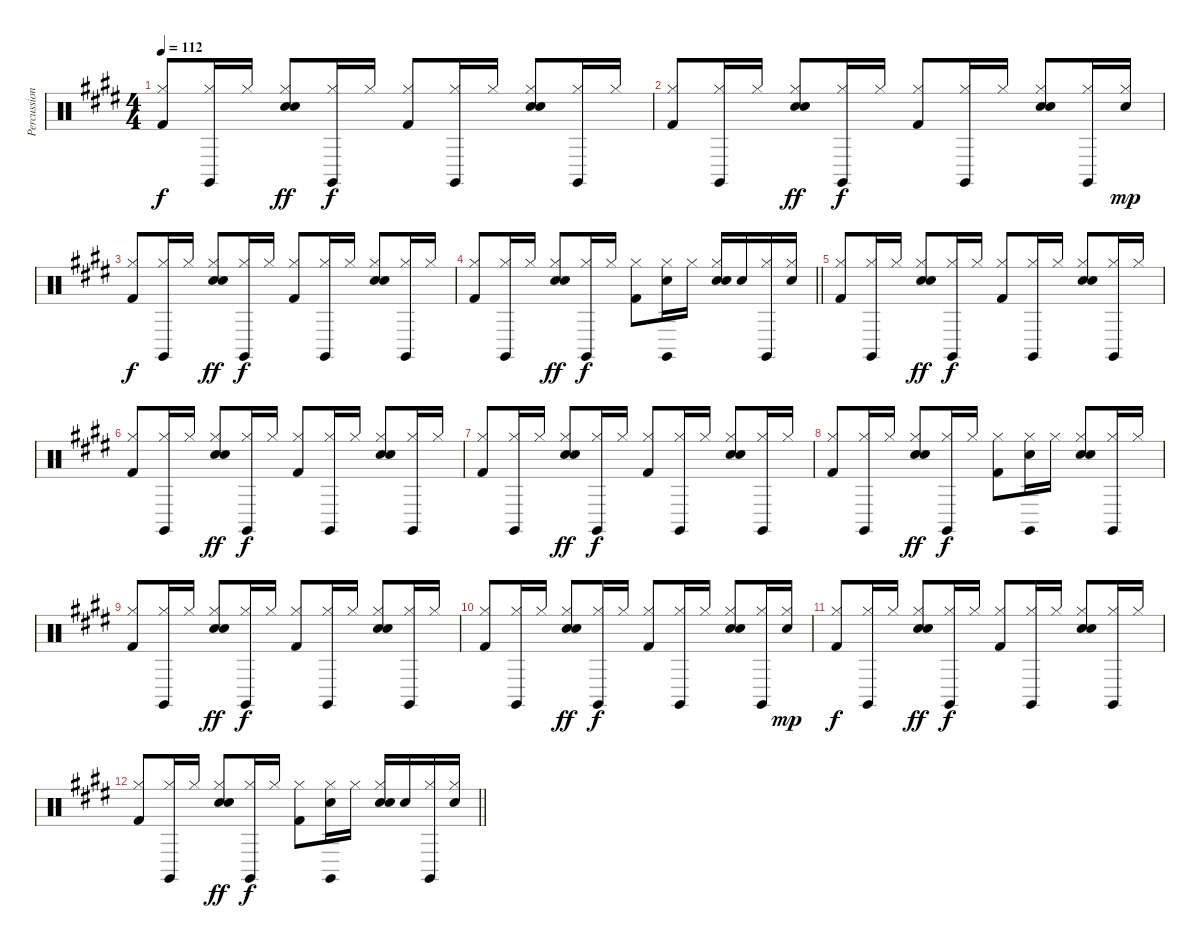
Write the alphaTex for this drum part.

\track ("Percussion" "Percussion") {instrument percussion}
\staff {score}
\articulation defaults
\ts (4 4)
\tempo 112
\clef neutral
\ks e
("Hi-Hat (closed)" "Kick (hit) 2").8{dy f} ("Claves (hit)" "Hi-Hat (closed)").16 "Hi-Hat (closed)".16 ("Hand Clap (hit)" "Hi-Hat (closed)" "Snare (hit) 2").8{dy ff} ("Claves (hit)" "Hi-Hat (closed)").16{dy f} "Hi-Hat (closed)".16 ("Hi-Hat (closed)" "Kick (hit) 2").8 ("Claves (hit)" "Hi-Hat (closed)").16 "Hi-Hat (closed)".16 ("Hand Clap (hit)" "Hi-Hat (closed)" "Snare (hit) 2").8 ("Claves (hit)" "Hi-Hat (closed)").16 "Hi-Hat (closed)".16 |
("Hi-Hat (closed)" "Kick (hit) 2").8 ("Claves (hit)" "Hi-Hat (closed)").16 "Hi-Hat (closed)".16 ("Hand Clap (hit)" "Hi-Hat (closed)" "Snare (hit) 2").8{dy ff} ("Claves (hit)" "Hi-Hat (closed)").16{dy f} "Hi-Hat (closed)".16 ("Hi-Hat (closed)" "Kick (hit) 2").8 ("Claves (hit)" "Hi-Hat (closed)").16 "Hi-Hat (closed)".16 ("Hand Clap (hit)" "Hi-Hat (closed)" "Snare (hit) 2").8 ("Claves (hit)" "Hi-Hat (closed)").16 ("Electric Snare (hit)" "Hi-Hat (closed)").16{dy mp} |
("Hi-Hat (closed)" "Kick (hit) 2").8{dy f} ("Claves (hit)" "Hi-Hat (closed)").16 "Hi-Hat (closed)".16 ("Hand Clap (hit)" "Hi-Hat (closed)" "Snare (hit) 2").8{dy ff} ("Claves (hit)" "Hi-Hat (closed)").16{dy f} "Hi-Hat (closed)".16 ("Hi-Hat (closed)" "Kick (hit) 2").8 ("Claves (hit)" "Hi-Hat (closed)").16 "Hi-Hat (closed)".16 ("Hand Clap (hit)" "Hi-Hat (closed)" "Snare (hit) 2").8 ("Claves (hit)" "Hi-Hat (closed)").16 "Hi-Hat (closed)".16 |
\barLineRight lightlight
("Hi-Hat (closed)" "Kick (hit) 2").8 ("Claves (hit)" "Hi-Hat (closed)").16 "Hi-Hat (closed)".16 ("Hand Clap (hit)" "Hi-Hat (closed)" "Snare (hit) 2").8{dy ff} ("Claves (hit)" "Hi-Hat (closed)").16{dy f} "Hi-Hat (closed)".16 ("Hi-Hat (closed)" "Kick (hit) 2").8 ("Claves (hit)" "Hi-Hat (closed)" "Snare (hit) 2").16 "Hi-Hat (closed)".16 ("Hand Clap (hit)" "Hi-Hat (closed)" "Snare (hit) 2").16 "Snare (hit) 2".16 ("Claves (hit)" "Hi-Hat (closed)").16 ("Hi-Hat (closed)" "Snare (hit) 2").16 |
("Hi-Hat (closed)" "Kick (hit) 2").8 ("Claves (hit)" "Hi-Hat (closed)").16 "Hi-Hat (closed)".16 ("Hand Clap (hit)" "Hi-Hat (closed)" "Snare (hit) 2").8{dy ff} ("Claves (hit)" "Hi-Hat (closed)").16{dy f} "Hi-Hat (closed)".16 ("Hi-Hat (closed)" "Kick (hit) 2").8 ("Claves (hit)" "Hi-Hat (closed)").16 "Hi-Hat (closed)".16 ("Hand Clap (hit)" "Hi-Hat (closed)" "Snare (hit) 2").8 ("Claves (hit)" "Hi-Hat (closed)").16 "Hi-Hat (closed)".16 |
("Hi-Hat (closed)" "Kick (hit) 2").8 ("Claves (hit)" "Hi-Hat (closed)").16 "Hi-Hat (closed)".16 ("Hand Clap (hit)" "Hi-Hat (closed)" "Snare (hit) 2").8{dy ff} ("Claves (hit)" "Hi-Hat (closed)").16{dy f} "Hi-Hat (closed)".16 ("Hi-Hat (closed)" "Kick (hit) 2").8 ("Claves (hit)" "Hi-Hat (closed)").16 "Hi-Hat (closed)".16 ("Hand Clap (hit)" "Hi-Hat (closed)" "Snare (hit) 2").8 ("Claves (hit)" "Hi-Hat (closed)").16 "Hi-Hat (closed)".16 |
("Hi-Hat (closed)" "Kick (hit) 2").8 ("Claves (hit)" "Hi-Hat (closed)").16 "Hi-Hat (closed)".16 ("Hand Clap (hit)" "Hi-Hat (closed)" "Snare (hit) 2").8{dy ff} ("Claves (hit)" "Hi-Hat (closed)").16{dy f} "Hi-Hat (closed)".16 ("Hi-Hat (closed)" "Kick (hit) 2").8 ("Claves (hit)" "Hi-Hat (closed)").16 "Hi-Hat (closed)".16 ("Hand Clap (hit)" "Hi-Hat (closed)" "Snare (hit) 2").8 ("Claves (hit)" "Hi-Hat (closed)").16 "Hi-Hat (closed)".16 |
("Hi-Hat (closed)" "Kick (hit) 2").8 ("Claves (hit)" "Hi-Hat (closed)").16 "Hi-Hat (closed)".16 ("Hand Clap (hit)" "Hi-Hat (closed)" "Snare (hit) 2").8{dy ff} ("Claves (hit)" "Hi-Hat (closed)").16{dy f} "Hi-Hat (closed)".16 ("Hi-Hat (closed)" "Kick (hit) 2").8 ("Claves (hit)" "Hand Clap (hit)" "Hi-Hat (closed)").16 "Hi-Hat (closed)".16 ("Hand Clap (hit)" "Hi-Hat (closed)" "Snare (hit) 2").8 ("Claves (hit)" "Hi-Hat (closed)").16 "Hi-Hat (closed)".16 |
("Hi-Hat (closed)" "Kick (hit) 2").8 ("Claves (hit)" "Hi-Hat (closed)").16 "Hi-Hat (closed)".16 ("Hand Clap (hit)" "Hi-Hat (closed)" "Snare (hit) 2").8{dy ff} ("Claves (hit)" "Hi-Hat (closed)").16{dy f} "Hi-Hat (closed)".16 ("Hi-Hat (closed)" "Kick (hit) 2").8 ("Claves (hit)" "Hi-Hat (closed)").16 "Hi-Hat (closed)".16 ("Hand Clap (hit)" "Hi-Hat (closed)" "Snare (hit) 2").8 ("Claves (hit)" "Hi-Hat (closed)").16 "Hi-Hat (closed)".16 |
("Hi-Hat (closed)" "Kick (hit) 2").8 ("Claves (hit)" "Hi-Hat (closed)").16 "Hi-Hat (closed)".16 ("Hand Clap (hit)" "Hi-Hat (closed)" "Snare (hit) 2").8{dy ff} ("Claves (hit)" "Hi-Hat (closed)").16{dy f} "Hi-Hat (closed)".16 ("Hi-Hat (closed)" "Kick (hit) 2").8 ("Claves (hit)" "Hi-Hat (closed)").16 "Hi-Hat (closed)".16 ("Hand Clap (hit)" "Hi-Hat (closed)" "Snare (hit) 2").8 ("Claves (hit)" "Hi-Hat (closed)").16 ("Electric Snare (hit)" "Hi-Hat (closed)").16{dy mp} |
("Hi-Hat (closed)" "Kick (hit) 2").8{dy f} ("Claves (hit)" "Hi-Hat (closed)").16 "Hi-Hat (closed)".16 ("Hand Clap (hit)" "Hi-Hat (closed)" "Snare (hit) 2").8{dy ff} ("Claves (hit)" "Hi-Hat (closed)").16{dy f} "Hi-Hat (closed)".16 ("Hi-Hat (closed)" "Kick (hit) 2").8 ("Claves (hit)" "Hi-Hat (closed)").16 "Hi-Hat (closed)".16 ("Hand Clap (hit)" "Hi-Hat (closed)" "Snare (hit) 2").8 ("Claves (hit)" "Hi-Hat (closed)").16 "Hi-Hat (closed)".16 |
\barLineRight lightlight
("Hi-Hat (closed)" "Kick (hit) 2").8 ("Claves (hit)" "Hi-Hat (closed)").16 "Hi-Hat (closed)".16 ("Hand Clap (hit)" "Hi-Hat (closed)" "Snare (hit) 2").8{dy ff} ("Claves (hit)" "Hi-Hat (closed)").16{dy f} "Hi-Hat (closed)".16 ("Hi-Hat (closed)" "Kick (hit) 2").8 ("Claves (hit)" "Hi-Hat (closed)" "Snare (hit) 2").16 "Hi-Hat (closed)".16 ("Hand Clap (hit)" "Hi-Hat (closed)" "Snare (hit) 2").16 "Snare (hit) 2".16 ("Claves (hit)" "Hi-Hat (closed)").16 ("Hi-Hat (closed)" "Snare (hit) 2").16
